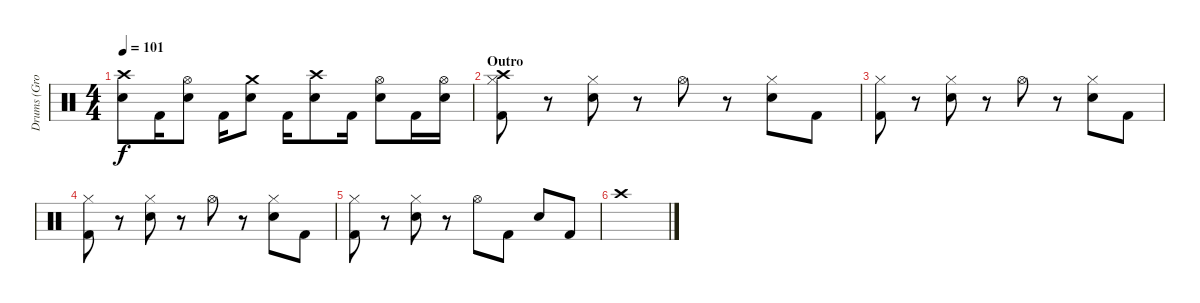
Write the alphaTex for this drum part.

\track ("Drums (Grohl)" "Drums (Gro") {instrument percussion}
\staff {score}
\articulation defaults
\ts (4 4)
\tempo 101
\clef neutral
\ks c
("Snare (hit) 2" "Crash high (hit)").8{dy f} "Kick (hit) 2".16 ("Snare (hit) 2" "Hi-Hat (open)").8 "Kick (hit) 2".16 ("Snare (hit) 2" "Crash medium (hit)").8 "Kick (hit) 2".16 ("Snare (hit) 2" "Crash high (hit)").8 "Kick (hit) 2".16 ("Snare (hit) 2" "Hi-Hat (open)").8 "Kick (hit) 2".16 ("Snare (hit) 2" "Hi-Hat (open)").16 |
\section ("" "Outro")
("Hi-Hat (closed)" "Kick (hit) 2" "Crash high (hit)").8 r.8 ("Hi-Hat (closed)" "Snare (hit) 2").8 r.8 "Hi-Hat (open)".8 r.8 ("Hi-Hat (closed)" "Snare (hit) 2").8 "Kick (hit) 2".8 |
("Hi-Hat (closed)" "Kick (hit) 2").8 r.8 ("Hi-Hat (closed)" "Snare (hit) 2").8 r.8 "Hi-Hat (open)".8 r.8 ("Hi-Hat (closed)" "Snare (hit) 2").8 "Kick (hit) 2".8 |
("Hi-Hat (closed)" "Kick (hit) 2").8 r.8 ("Hi-Hat (closed)" "Snare (hit) 2").8 r.8 "Hi-Hat (open)".8 r.8 ("Hi-Hat (closed)" "Snare (hit) 2").8 "Kick (hit) 2".8 |
("Hi-Hat (closed)" "Kick (hit) 2").8 r.8 ("Hi-Hat (closed)" "Snare (hit) 2").8 r.8 "Hi-Hat (open)".8 "Kick (hit) 2".8 "Snare (hit) 2".8 "Kick (hit) 2".8 |
"Crash high (hit)".1
